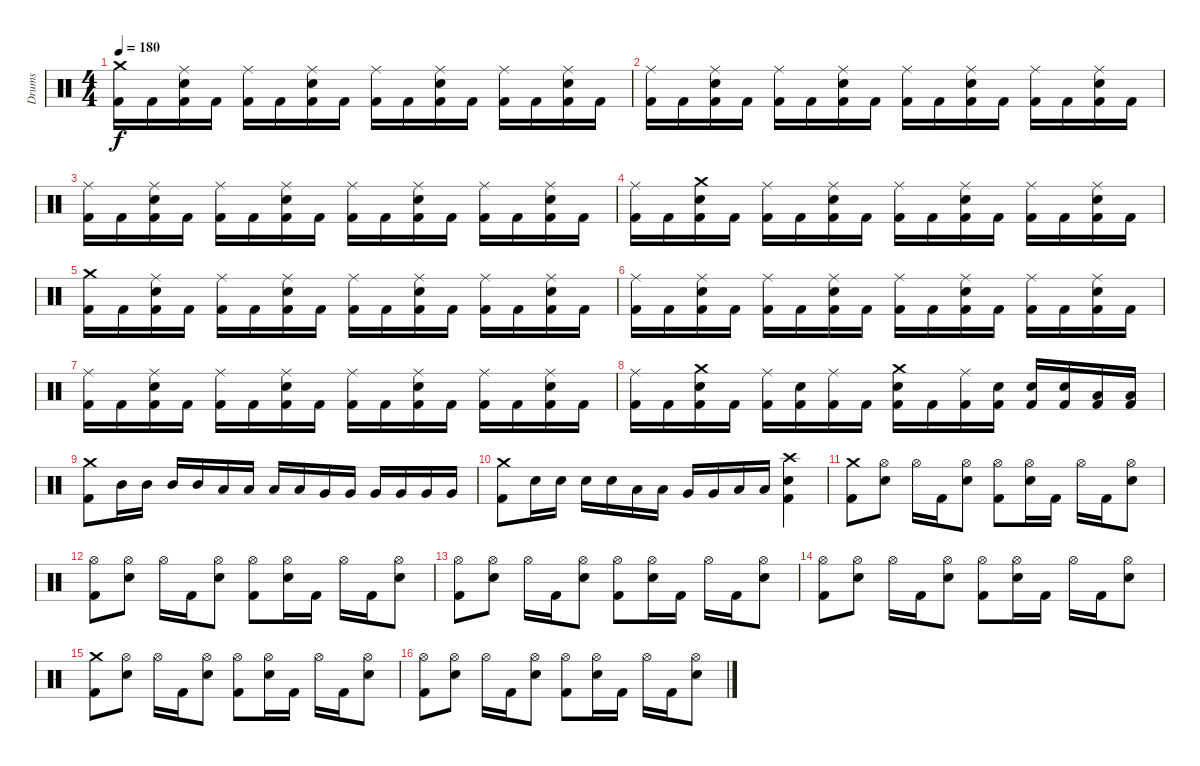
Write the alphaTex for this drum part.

\track ("Drums" "Drums") {instrument percussion}
\staff {score}
\articulation defaults
\ts (4 4)
\tempo 180
\clef neutral
\ks c
("Crash medium (hit)" "Kick (hit) 2").16{dy f} "Kick (hit) 2".16 ("Ride (middle)" "Snare (hit) 2" "Kick (hit) 2").16 "Kick (hit) 2".16 ("Ride (middle)" "Kick (hit) 2").16 "Kick (hit) 2".16 ("Ride (middle)" "Snare (hit) 2" "Kick (hit) 2").16 "Kick (hit) 2".16 ("Ride (middle)" "Kick (hit) 2").16 "Kick (hit) 2".16 ("Ride (middle)" "Snare (hit) 2" "Kick (hit) 2").16 "Kick (hit) 2".16 ("Ride (middle)" "Kick (hit) 2").16 "Kick (hit) 2".16 ("Ride (middle)" "Snare (hit) 2" "Kick (hit) 2").16 "Kick (hit) 2".16 |
("Ride (middle)" "Kick (hit) 2").16 "Kick (hit) 2".16 ("Ride (middle)" "Snare (hit) 2" "Kick (hit) 2").16 "Kick (hit) 2".16 ("Ride (middle)" "Kick (hit) 2").16 "Kick (hit) 2".16 ("Ride (middle)" "Snare (hit) 2" "Kick (hit) 2").16 "Kick (hit) 2".16 ("Ride (middle)" "Kick (hit) 2").16 "Kick (hit) 2".16 ("Ride (middle)" "Snare (hit) 2" "Kick (hit) 2").16 "Kick (hit) 2".16 ("Ride (middle)" "Kick (hit) 2").16 "Kick (hit) 2".16 ("Ride (middle)" "Snare (hit) 2" "Kick (hit) 2").16 "Kick (hit) 2".16 |
("Ride (middle)" "Kick (hit) 2").16 "Kick (hit) 2".16 ("Ride (middle)" "Snare (hit) 2" "Kick (hit) 2").16 "Kick (hit) 2".16 ("Ride (middle)" "Kick (hit) 2").16 "Kick (hit) 2".16 ("Ride (middle)" "Snare (hit) 2" "Kick (hit) 2").16 "Kick (hit) 2".16 ("Ride (middle)" "Kick (hit) 2").16 "Kick (hit) 2".16 ("Ride (middle)" "Snare (hit) 2" "Kick (hit) 2").16 "Kick (hit) 2".16 ("Ride (middle)" "Kick (hit) 2").16 "Kick (hit) 2".16 ("Ride (middle)" "Snare (hit) 2" "Kick (hit) 2").16 "Kick (hit) 2".16 |
("Ride (middle)" "Kick (hit) 2").16 "Kick (hit) 2".16 ("Crash medium (hit)" "Snare (hit) 2" "Kick (hit) 2").16 "Kick (hit) 2".16 ("Ride (middle)" "Kick (hit) 2").16 "Kick (hit) 2".16 ("Ride (middle)" "Snare (hit) 2" "Kick (hit) 2").16 "Kick (hit) 2".16 ("Ride (middle)" "Kick (hit) 2").16 "Kick (hit) 2".16 ("Ride (middle)" "Snare (hit) 2" "Kick (hit) 2").16 "Kick (hit) 2".16 ("Ride (middle)" "Kick (hit) 2").16 "Kick (hit) 2".16 ("Ride (middle)" "Snare (hit) 2" "Kick (hit) 2").16 "Kick (hit) 2".16 |
("Crash medium (hit)" "Kick (hit) 2").16 "Kick (hit) 2".16 ("Ride (middle)" "Snare (hit) 2" "Kick (hit) 2").16 "Kick (hit) 2".16 ("Ride (middle)" "Kick (hit) 2").16 "Kick (hit) 2".16 ("Ride (middle)" "Snare (hit) 2" "Kick (hit) 2").16 "Kick (hit) 2".16 ("Ride (middle)" "Kick (hit) 2").16 "Kick (hit) 2".16 ("Ride (middle)" "Snare (hit) 2" "Kick (hit) 2").16 "Kick (hit) 2".16 ("Ride (middle)" "Kick (hit) 2").16 "Kick (hit) 2".16 ("Ride (middle)" "Snare (hit) 2" "Kick (hit) 2").16 "Kick (hit) 2".16 |
("Ride (middle)" "Kick (hit) 2").16 "Kick (hit) 2".16 ("Ride (middle)" "Snare (hit) 2" "Kick (hit) 2").16 "Kick (hit) 2".16 ("Ride (middle)" "Kick (hit) 2").16 "Kick (hit) 2".16 ("Ride (middle)" "Snare (hit) 2" "Kick (hit) 2").16 "Kick (hit) 2".16 ("Ride (middle)" "Kick (hit) 2").16 "Kick (hit) 2".16 ("Ride (middle)" "Snare (hit) 2" "Kick (hit) 2").16 "Kick (hit) 2".16 ("Ride (middle)" "Kick (hit) 2").16 "Kick (hit) 2".16 ("Ride (middle)" "Snare (hit) 2" "Kick (hit) 2").16 "Kick (hit) 2".16 |
("Ride (middle)" "Kick (hit) 2").16 "Kick (hit) 2".16 ("Ride (middle)" "Snare (hit) 2" "Kick (hit) 2").16 "Kick (hit) 2".16 ("Ride (middle)" "Kick (hit) 2").16 "Kick (hit) 2".16 ("Ride (middle)" "Snare (hit) 2" "Kick (hit) 2").16 "Kick (hit) 2".16 ("Ride (middle)" "Kick (hit) 2").16 "Kick (hit) 2".16 ("Ride (middle)" "Snare (hit) 2" "Kick (hit) 2").16 "Kick (hit) 2".16 ("Ride (middle)" "Kick (hit) 2").16 "Kick (hit) 2".16 ("Ride (middle)" "Snare (hit) 2" "Kick (hit) 2").16 "Kick (hit) 2".16 |
("Ride (middle)" "Kick (hit) 2").16 "Kick (hit) 2".16 ("Crash medium (hit)" "Snare (hit) 2" "Kick (hit) 2").16 "Kick (hit) 2".16 ("Ride (middle)" "Kick (hit) 2").16 ("Snare (hit) 2" "Kick (hit) 2").16 ("Ride (middle)" "Kick (hit) 2").16 "Kick (hit) 2".16 ("Crash medium (hit)" "Snare (hit) 2" "Kick (hit) 2").16 "Kick (hit) 2".16 ("Ride (middle)" "Kick (hit) 2").16 ("Snare (hit) 2" "Kick (hit) 2").16 ("Snare (hit) 2" "Kick (hit) 2").16 ("Snare (hit) 2" "Kick (hit) 2").16 ("Low Tom (hit)" "Kick (hit) 2").16 ("Low Tom (hit)" "Kick (hit) 2").16 |
("Crash medium (hit)" "Kick (hit) 2").8 "Mid Tom (hit)".16 "Mid Tom (hit)".16 "Mid Tom (hit)".16 "Mid Tom (hit)".16 "Low Tom (hit)".16 "Low Tom (hit)".16 "Low Tom (hit)".16 "Low Tom (hit)".16 "Very Low Tom (hit)".16 "Very Low Tom (hit)".16 "Very Low Tom (hit)".16 "Very Low Tom (hit)".16 "Very Low Tom (hit)".16 "Very Low Tom (hit)".16 |
("Crash medium (hit)" "Kick (hit) 2").8 "Snare (hit) 2".16 "Snare (hit) 2".16 "Snare (hit) 2".16 "Snare (hit) 2".16 "Low Tom (hit)".16 "Low Tom (hit)".16 "Very Low Tom (hit)".16 "Very Low Tom (hit)".16 "Low Floor Tom (hit)".16 "Low Floor Tom (hit)".16 ("Crash high (hit)" "Snare (hit) 2" "Kick (hit) 2").4 |
("Crash medium (hit)" "Kick (hit) 2").8 ("Hi-Hat (open)" "Snare (hit) 2").8 "Hi-Hat (open)".16 "Kick (hit) 2".16 ("Hi-Hat (open)" "Snare (hit) 2").8 ("Hi-Hat (open)" "Kick (hit) 2").8 ("Hi-Hat (open)" "Snare (hit) 2").16 "Kick (hit) 2".16 "Hi-Hat (open)".16 "Kick (hit) 2".16 ("Hi-Hat (open)" "Snare (hit) 2").8 |
("Hi-Hat (open)" "Kick (hit) 2").8 ("Hi-Hat (open)" "Snare (hit) 2").8 "Hi-Hat (open)".16 "Kick (hit) 2".16 ("Hi-Hat (open)" "Snare (hit) 2").8 ("Hi-Hat (open)" "Kick (hit) 2").8 ("Hi-Hat (open)" "Snare (hit) 2").16 "Kick (hit) 2".16 "Hi-Hat (open)".16 "Kick (hit) 2".16 ("Hi-Hat (open)" "Snare (hit) 2").8 |
("Hi-Hat (open)" "Kick (hit) 2").8 ("Hi-Hat (open)" "Snare (hit) 2").8 "Hi-Hat (open)".16 "Kick (hit) 2".16 ("Hi-Hat (open)" "Snare (hit) 2").8 ("Hi-Hat (open)" "Kick (hit) 2").8 ("Hi-Hat (open)" "Snare (hit) 2").16 "Kick (hit) 2".16 "Hi-Hat (open)".16 "Kick (hit) 2".16 ("Hi-Hat (open)" "Snare (hit) 2").8 |
("Hi-Hat (open)" "Kick (hit) 2").8 ("Hi-Hat (open)" "Snare (hit) 2").8 "Hi-Hat (open)".16 "Kick (hit) 2".16 ("Hi-Hat (open)" "Snare (hit) 2").8 ("Hi-Hat (open)" "Kick (hit) 2").8 ("Hi-Hat (open)" "Snare (hit) 2").16 "Kick (hit) 2".16 "Hi-Hat (open)".16 "Kick (hit) 2".16 ("Hi-Hat (open)" "Snare (hit) 2").8 |
("Crash medium (hit)" "Kick (hit) 2").8 ("Hi-Hat (open)" "Snare (hit) 2").8 "Hi-Hat (open)".16 "Kick (hit) 2".16 ("Hi-Hat (open)" "Snare (hit) 2").8 ("Hi-Hat (open)" "Kick (hit) 2").8 ("Hi-Hat (open)" "Snare (hit) 2").16 "Kick (hit) 2".16 "Hi-Hat (open)".16 "Kick (hit) 2".16 ("Hi-Hat (open)" "Snare (hit) 2").8 |
("Hi-Hat (open)" "Kick (hit) 2").8 ("Hi-Hat (open)" "Snare (hit) 2").8 "Hi-Hat (open)".16 "Kick (hit) 2".16 ("Hi-Hat (open)" "Snare (hit) 2").8 ("Hi-Hat (open)" "Kick (hit) 2").8 ("Hi-Hat (open)" "Snare (hit) 2").16 "Kick (hit) 2".16 "Hi-Hat (open)".16 "Kick (hit) 2".16 ("Hi-Hat (open)" "Snare (hit) 2").8
